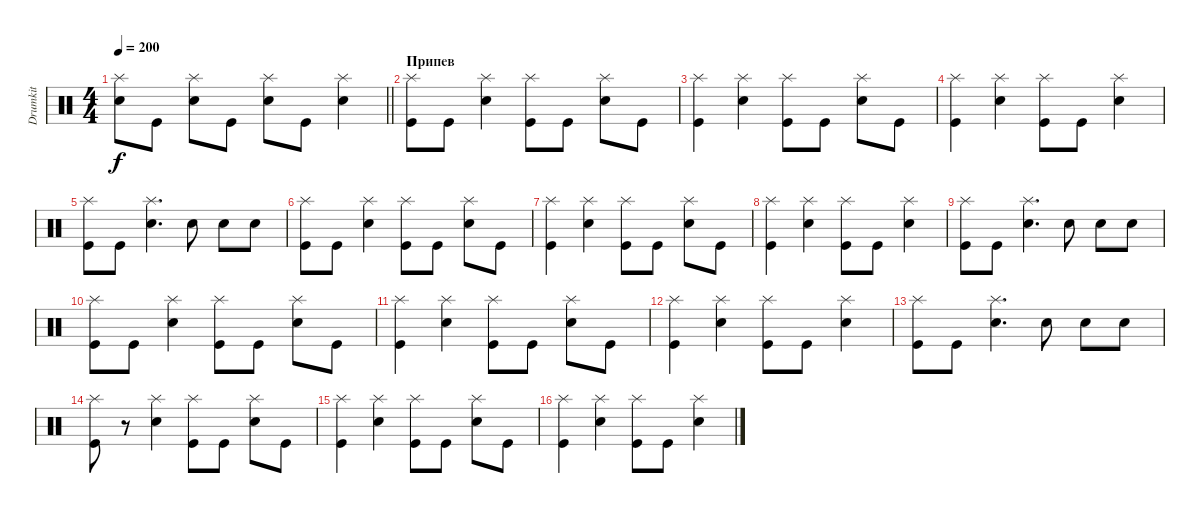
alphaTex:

\track ("Drumkit" "Drumkit") {instrument percussion}
\staff {score}
\articulation defaults
\ts (4 4)
\tempo 200
\clef neutral
\barLineRight lightlight
\ks c
("Snare (hit) 2" "Splash (hit)").8{dy f} "Kick (hit)".8 ("Snare (hit) 2" "Splash (hit)").8 "Kick (hit)".8 ("Snare (hit) 2" "Splash (hit)").8 "Kick (hit)".8 ("Snare (hit) 2" "Splash (hit)").4 |
\section ("" "Припев")
("Kick (hit)" "Splash (hit)").8 "Kick (hit)".8 ("Snare (hit) 2" "Splash (hit)").4 ("Kick (hit)" "Splash (hit)").8 "Kick (hit)".8 ("Snare (hit) 2" "Splash (hit)").8 "Kick (hit)".8 |
("Kick (hit)" "Splash (hit)").4 ("Snare (hit) 2" "Splash (hit)").4 ("Kick (hit)" "Splash (hit)").8 "Kick (hit)".8 ("Snare (hit) 2" "Splash (hit)").8 "Kick (hit)".8 |
("Kick (hit)" "Splash (hit)").4 ("Snare (hit) 2" "Splash (hit)").4 ("Kick (hit)" "Splash (hit)").8 "Kick (hit)".8 ("Snare (hit) 2" "Splash (hit)").4 |
("Kick (hit)" "Splash (hit)").8 "Kick (hit)".8 ("Snare (hit) 2" "Splash (hit)").4{d} "Snare (hit) 2".8 "Snare (hit) 2".8 "Snare (hit) 2".8 |
("Kick (hit)" "Splash (hit)").8 "Kick (hit)".8 ("Snare (hit) 2" "Splash (hit)").4 ("Kick (hit)" "Splash (hit)").8 "Kick (hit)".8 ("Snare (hit) 2" "Splash (hit)").8 "Kick (hit)".8 |
("Kick (hit)" "Splash (hit)").4 ("Snare (hit) 2" "Splash (hit)").4 ("Kick (hit)" "Splash (hit)").8 "Kick (hit)".8 ("Snare (hit) 2" "Splash (hit)").8 "Kick (hit)".8 |
("Kick (hit)" "Splash (hit)").4 ("Snare (hit) 2" "Splash (hit)").4 ("Kick (hit)" "Splash (hit)").8 "Kick (hit)".8 ("Snare (hit) 2" "Splash (hit)").4 |
("Kick (hit)" "Splash (hit)").8 "Kick (hit)".8 ("Snare (hit) 2" "Splash (hit)").4{d} "Snare (hit) 2".8 "Snare (hit) 2".8 "Snare (hit) 2".8 |
("Kick (hit)" "Splash (hit)").8 "Kick (hit)".8 ("Snare (hit) 2" "Splash (hit)").4 ("Kick (hit)" "Splash (hit)").8 "Kick (hit)".8 ("Snare (hit) 2" "Splash (hit)").8 "Kick (hit)".8 |
("Kick (hit)" "Splash (hit)").4 ("Snare (hit) 2" "Splash (hit)").4 ("Kick (hit)" "Splash (hit)").8 "Kick (hit)".8 ("Snare (hit) 2" "Splash (hit)").8 "Kick (hit)".8 |
("Kick (hit)" "Splash (hit)").4 ("Snare (hit) 2" "Splash (hit)").4 ("Kick (hit)" "Splash (hit)").8 "Kick (hit)".8 ("Snare (hit) 2" "Splash (hit)").4 |
("Kick (hit)" "Splash (hit)").8 "Kick (hit)".8 ("Snare (hit) 2" "Splash (hit)").4{d} "Snare (hit) 2".8 "Snare (hit) 2".8 "Snare (hit) 2".8 |
("Kick (hit)" "Splash (hit)").8 r.8 ("Snare (hit) 2" "Splash (hit)").4 ("Kick (hit)" "Splash (hit)").8 "Kick (hit)".8 ("Snare (hit) 2" "Splash (hit)").8 "Kick (hit)".8 |
("Kick (hit)" "Splash (hit)").4 ("Snare (hit) 2" "Splash (hit)").4 ("Kick (hit)" "Splash (hit)").8 "Kick (hit)".8 ("Snare (hit) 2" "Splash (hit)").8 "Kick (hit)".8 |
("Kick (hit)" "Splash (hit)").4 ("Snare (hit) 2" "Splash (hit)").4 ("Kick (hit)" "Splash (hit)").8 "Kick (hit)".8 ("Snare (hit) 2" "Splash (hit)").4
